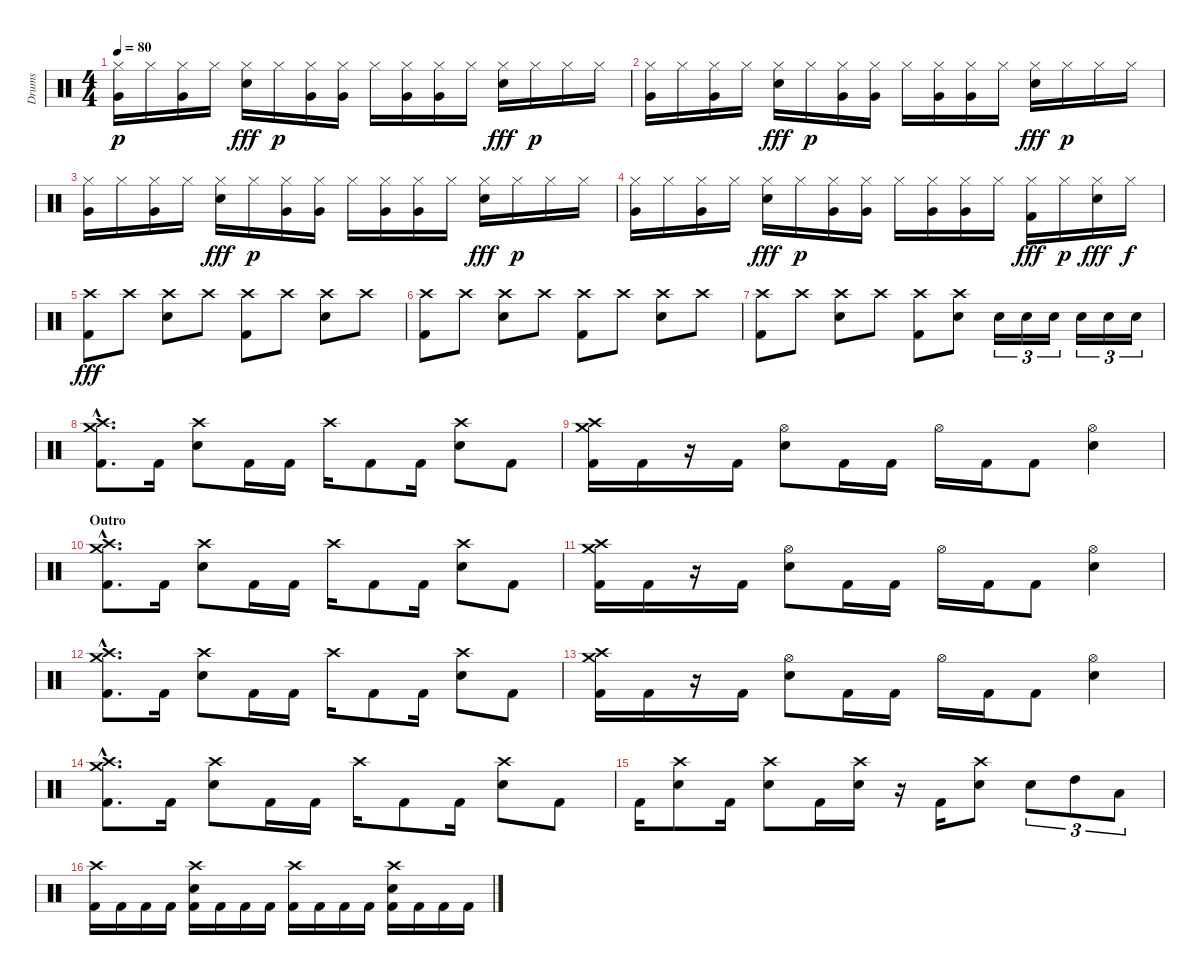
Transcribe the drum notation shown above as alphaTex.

\track ("Drums" "Drums") {instrument percussion}
\staff {score}
\articulation defaults
\ts (4 4)
\tempo 80
\clef neutral
\ks c
("Very Low Tom (hit)" "Hi-Hat (closed)").16{dy p} "Hi-Hat (closed)".16 ("Very Low Tom (hit)" "Hi-Hat (closed)").16 "Hi-Hat (closed)".16 ("Hi-Hat (closed)" "Electric Snare (hit)").16{dy fff} "Hi-Hat (closed)".16{dy p} ("Very Low Tom (hit)" "Hi-Hat (closed)").16 ("Very Low Tom (hit)" "Hi-Hat (closed)").16 "Hi-Hat (closed)".16 ("Very Low Tom (hit)" "Hi-Hat (closed)").16 ("Very Low Tom (hit)" "Hi-Hat (closed)").16 "Hi-Hat (closed)".16 ("Hi-Hat (closed)" "Electric Snare (hit)").16{dy fff} "Hi-Hat (closed)".16{dy p} "Hi-Hat (closed)".16 "Hi-Hat (closed)".16 |
("Very Low Tom (hit)" "Hi-Hat (closed)").16 "Hi-Hat (closed)".16 ("Very Low Tom (hit)" "Hi-Hat (closed)").16 "Hi-Hat (closed)".16 ("Hi-Hat (closed)" "Electric Snare (hit)").16{dy fff} "Hi-Hat (closed)".16{dy p} ("Very Low Tom (hit)" "Hi-Hat (closed)").16 ("Very Low Tom (hit)" "Hi-Hat (closed)").16 "Hi-Hat (closed)".16 ("Very Low Tom (hit)" "Hi-Hat (closed)").16 ("Very Low Tom (hit)" "Hi-Hat (closed)").16 "Hi-Hat (closed)".16 ("Hi-Hat (closed)" "Electric Snare (hit)").16{dy fff} "Hi-Hat (closed)".16{dy p} "Hi-Hat (closed)".16 "Hi-Hat (closed)".16 |
("Very Low Tom (hit)" "Hi-Hat (closed)").16 "Hi-Hat (closed)".16 ("Very Low Tom (hit)" "Hi-Hat (closed)").16 "Hi-Hat (closed)".16 ("Hi-Hat (closed)" "Electric Snare (hit)").16{dy fff} "Hi-Hat (closed)".16{dy p} ("Very Low Tom (hit)" "Hi-Hat (closed)").16 ("Very Low Tom (hit)" "Hi-Hat (closed)").16 "Hi-Hat (closed)".16 ("Very Low Tom (hit)" "Hi-Hat (closed)").16 ("Very Low Tom (hit)" "Hi-Hat (closed)").16 "Hi-Hat (closed)".16 ("Hi-Hat (closed)" "Electric Snare (hit)").16{dy fff} "Hi-Hat (closed)".16{dy p} "Hi-Hat (closed)".16 "Hi-Hat (closed)".16 |
("Very Low Tom (hit)" "Hi-Hat (closed)").16 "Hi-Hat (closed)".16 ("Very Low Tom (hit)" "Hi-Hat (closed)").16 "Hi-Hat (closed)".16 ("Hi-Hat (closed)" "Electric Snare (hit)").16{dy fff} "Hi-Hat (closed)".16{dy p} ("Very Low Tom (hit)" "Hi-Hat (closed)").16 ("Very Low Tom (hit)" "Hi-Hat (closed)").16 "Hi-Hat (closed)".16 ("Very Low Tom (hit)" "Hi-Hat (closed)").16 ("Very Low Tom (hit)" "Hi-Hat (closed)").16 "Hi-Hat (closed)".16 ("Hi-Hat (closed)" "Kick (hit) 2").16{dy fff} "Hi-Hat (closed)".16{dy p} ("Hi-Hat (closed)" "Electric Snare (hit)").16{dy fff} "Hi-Hat (closed)".16{dy f} |
("Crash high (hit)" "Kick (hit) 2").8{dy fff} "Crash high (hit)".8 ("Crash high (hit)" "Electric Snare (hit)").8 "Crash high (hit)".8 ("Crash high (hit)" "Kick (hit) 2").8 "Crash high (hit)".8 ("Crash high (hit)" "Electric Snare (hit)").8 "Crash high (hit)".8 |
("Crash high (hit)" "Kick (hit) 2").8 "Crash high (hit)".8 ("Crash high (hit)" "Electric Snare (hit)").8 "Crash high (hit)".8 ("Crash high (hit)" "Kick (hit) 2").8 "Crash high (hit)".8 ("Crash high (hit)" "Electric Snare (hit)").8 "Crash high (hit)".8 |
("Crash high (hit)" "Kick (hit) 2").8 "Crash high (hit)".8 ("Crash high (hit)" "Electric Snare (hit)").8 "Crash high (hit)".8 ("Crash high (hit)" "Kick (hit) 2").8 ("Crash high (hit)" "Electric Snare (hit)").8 "Electric Snare (hit)".16{tu (3 2)} "Electric Snare (hit)".16{tu (3 2)} "Electric Snare (hit)".16{tu (3 2)} "Electric Snare (hit)".16{tu (3 2)} "Electric Snare (hit)".16{tu (3 2)} "Electric Snare (hit)".16{tu (3 2)} |
("Crash high (hit)"{hac} "Crash medium (hit)"{hac} "Kick (hit) 2"{hac}).8{d} "Kick (hit) 2".16 ("Crash high (hit)" "Electric Snare (hit)").8 "Kick (hit) 2".16 "Kick (hit) 2".16 "Crash high (hit)".16 "Kick (hit) 2".8 "Kick (hit) 2".16 ("Crash high (hit)" "Electric Snare (hit)").8 "Kick (hit) 2".8 |
("Crash high (hit)" "Crash medium (hit)" "Kick (hit) 2").16 "Kick (hit) 2".16 r.16 "Kick (hit) 2".16 ("Hi-Hat (open)" "Electric Snare (hit)").8 "Kick (hit) 2".16 "Kick (hit) 2".16 "Hi-Hat (open)".16 "Kick (hit) 2".16 "Kick (hit) 2".8 ("Hi-Hat (open)" "Electric Snare (hit)").4 |
\section ("" "Outro")
("Crash high (hit)"{hac} "Crash medium (hit)"{hac} "Kick (hit) 2"{hac}).8{d} "Kick (hit) 2".16 ("Crash high (hit)" "Electric Snare (hit)").8 "Kick (hit) 2".16 "Kick (hit) 2".16 "Crash high (hit)".16 "Kick (hit) 2".8 "Kick (hit) 2".16 ("Crash high (hit)" "Electric Snare (hit)").8 "Kick (hit) 2".8 |
("Crash high (hit)" "Crash medium (hit)" "Kick (hit) 2").16 "Kick (hit) 2".16 r.16 "Kick (hit) 2".16 ("Hi-Hat (open)" "Electric Snare (hit)").8 "Kick (hit) 2".16 "Kick (hit) 2".16 "Hi-Hat (open)".16 "Kick (hit) 2".16 "Kick (hit) 2".8 ("Hi-Hat (open)" "Electric Snare (hit)").4 |
("Crash high (hit)"{hac} "Crash medium (hit)"{hac} "Kick (hit) 2"{hac}).8{d} "Kick (hit) 2".16 ("Crash high (hit)" "Electric Snare (hit)").8 "Kick (hit) 2".16 "Kick (hit) 2".16 "Crash high (hit)".16 "Kick (hit) 2".8 "Kick (hit) 2".16 ("Crash high (hit)" "Electric Snare (hit)").8 "Kick (hit) 2".8 |
("Crash high (hit)" "Crash medium (hit)" "Kick (hit) 2").16 "Kick (hit) 2".16 r.16 "Kick (hit) 2".16 ("Hi-Hat (open)" "Electric Snare (hit)").8 "Kick (hit) 2".16 "Kick (hit) 2".16 "Hi-Hat (open)".16 "Kick (hit) 2".16 "Kick (hit) 2".8 ("Hi-Hat (open)" "Electric Snare (hit)").4 |
("Crash high (hit)"{hac} "Crash medium (hit)"{hac} "Kick (hit) 2"{hac}).8{d} "Kick (hit) 2".16 ("Crash high (hit)" "Electric Snare (hit)").8 "Kick (hit) 2".16 "Kick (hit) 2".16 "Crash high (hit)".16 "Kick (hit) 2".8 "Kick (hit) 2".16 ("Crash high (hit)" "Electric Snare (hit)").8 "Kick (hit) 2".8 |
"Kick (hit) 2".16 ("Crash high (hit)" "Electric Snare (hit)").8 "Kick (hit) 2".16 ("Crash high (hit)" "Electric Snare (hit)").8 "Kick (hit) 2".16 ("Crash high (hit)" "Electric Snare (hit)").16 r.16 "Kick (hit) 2".16 ("Crash high (hit)" "Electric Snare (hit)").8 "Electric Snare (hit)".8{tu (3 2)} "High Tom (hit)".8{tu (3 2)} "Low Tom (hit)".8{tu (3 2)} |
("Crash high (hit)" "Kick (hit) 2").16 "Kick (hit) 2".16 "Kick (hit) 2".16 "Kick (hit) 2".16 ("Crash high (hit)" "Electric Snare (hit)" "Kick (hit) 2").16 "Kick (hit) 2".16 "Kick (hit) 2".16 "Kick (hit) 2".16 ("Crash high (hit)" "Kick (hit) 2").16 "Kick (hit) 2".16 "Kick (hit) 2".16 "Kick (hit) 2".16 ("Crash high (hit)" "Electric Snare (hit)" "Kick (hit) 2").16 "Kick (hit) 2".16 "Kick (hit) 2".16 "Kick (hit) 2".16
